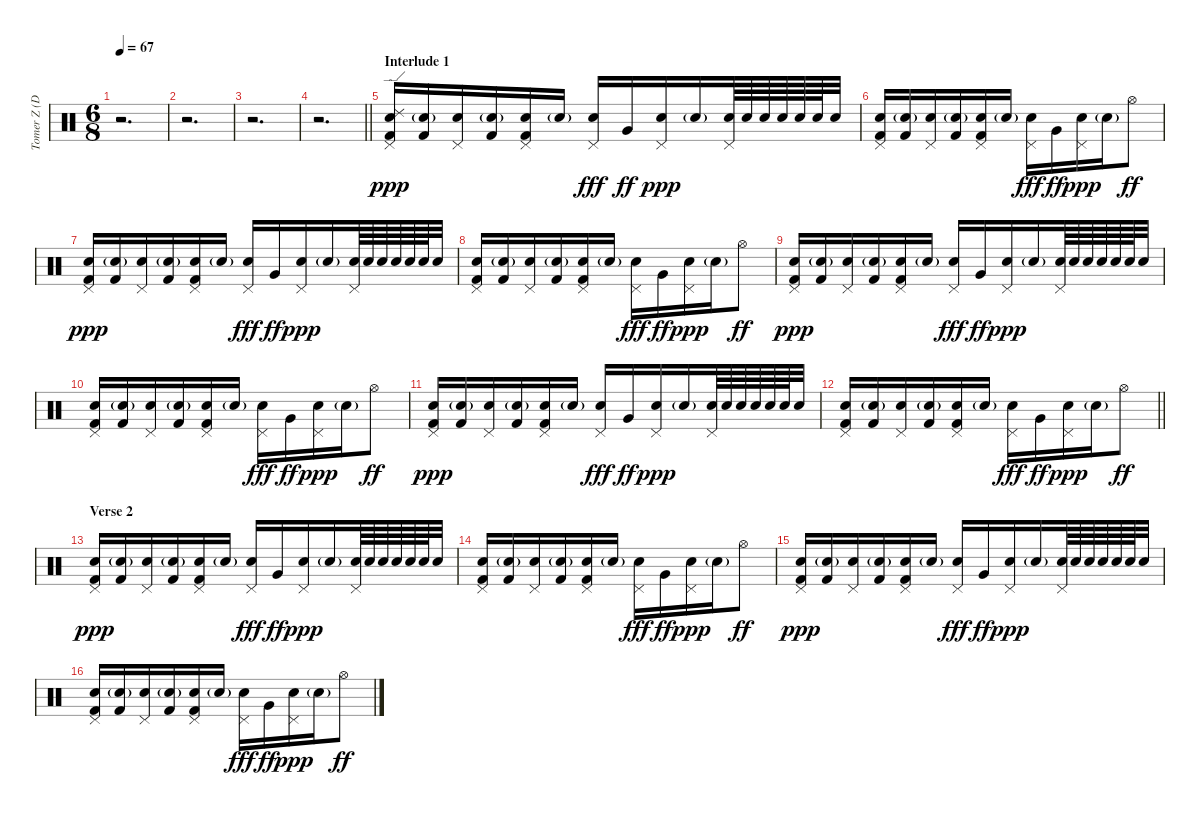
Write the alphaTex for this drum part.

\track ("Tomer Z (Drums)" "Tomer Z (D") {instrument percussion}
\staff {score}
\articulation defaults
\ts (6 8)
\tempo 67
\clef neutral
\ks c
r.2{d dy ppp} |
r.2{d} |
r.2{d} |
\barLineRight lightlight
r.2{d} |
\section ("" "Interlude 1")
("Pedal Hi-Hat (hit)" "Ride (edge) 2" "Snare (hit) 2" "Kick (hit) 2").16 ("Snare (hit) 2"{g} "Kick (hit) 2").16 ("Pedal Hi-Hat (hit)" "Snare (hit) 2").16 ("Snare (hit) 2"{g} "Kick (hit) 2").16 ("Pedal Hi-Hat (hit)" "Snare (hit) 2" "Kick (hit) 2").16 "Snare (hit) 2"{g}.16 ("Pedal Hi-Hat (hit)" "Snare (hit) 2").16{dy fff} "Very Low Tom (hit)".16{dy ff} ("Pedal Hi-Hat (hit)" "Snare (hit) 2").16{dy ppp} "Snare (hit) 2"{g}.16 ("Pedal Hi-Hat (hit)" "Snare (hit) 2").64 "Snare (hit) 2".64 "Snare (hit) 2".64 "Snare (hit) 2".64 "Snare (hit) 2".64 "Snare (hit) 2".64 "Snare (hit) 2".32 |
("Pedal Hi-Hat (hit)" "Snare (hit) 2" "Kick (hit) 2").16 ("Snare (hit) 2"{g} "Kick (hit) 2").16 ("Pedal Hi-Hat (hit)" "Snare (hit) 2").16 ("Snare (hit) 2"{g} "Kick (hit) 2").16 ("Pedal Hi-Hat (hit)" "Snare (hit) 2" "Kick (hit) 2").16 "Snare (hit) 2"{g}.16 ("Pedal Hi-Hat (hit)" "Snare (hit) 2").16{dy fff} "Very Low Tom (hit)".16{dy ff} ("Pedal Hi-Hat (hit)" "Snare (hit) 2").16{dy ppp} "Snare (hit) 2"{g}.16 "Hi-Hat (open)".8{dy ff} |
("Pedal Hi-Hat (hit)" "Snare (hit) 2" "Kick (hit) 2").16{dy ppp} ("Snare (hit) 2"{g} "Kick (hit) 2").16 ("Pedal Hi-Hat (hit)" "Snare (hit) 2").16 ("Snare (hit) 2"{g} "Kick (hit) 2").16 ("Pedal Hi-Hat (hit)" "Snare (hit) 2" "Kick (hit) 2").16 "Snare (hit) 2"{g}.16 ("Pedal Hi-Hat (hit)" "Snare (hit) 2").16{dy fff} "Very Low Tom (hit)".16{dy ff} ("Pedal Hi-Hat (hit)" "Snare (hit) 2").16{dy ppp} "Snare (hit) 2"{g}.16 ("Pedal Hi-Hat (hit)" "Snare (hit) 2").64 "Snare (hit) 2".64 "Snare (hit) 2".64 "Snare (hit) 2".64 "Snare (hit) 2".64 "Snare (hit) 2".64 "Snare (hit) 2".32 |
("Pedal Hi-Hat (hit)" "Snare (hit) 2" "Kick (hit) 2").16 ("Snare (hit) 2"{g} "Kick (hit) 2").16 ("Pedal Hi-Hat (hit)" "Snare (hit) 2").16 ("Snare (hit) 2"{g} "Kick (hit) 2").16 ("Pedal Hi-Hat (hit)" "Snare (hit) 2" "Kick (hit) 2").16 "Snare (hit) 2"{g}.16 ("Pedal Hi-Hat (hit)" "Snare (hit) 2").16{dy fff} "Very Low Tom (hit)".16{dy ff} ("Pedal Hi-Hat (hit)" "Snare (hit) 2").16{dy ppp} "Snare (hit) 2"{g}.16 "Hi-Hat (open)".8{dy ff} |
("Pedal Hi-Hat (hit)" "Snare (hit) 2" "Kick (hit) 2").16{dy ppp} ("Snare (hit) 2"{g} "Kick (hit) 2").16 ("Pedal Hi-Hat (hit)" "Snare (hit) 2").16 ("Snare (hit) 2"{g} "Kick (hit) 2").16 ("Pedal Hi-Hat (hit)" "Snare (hit) 2" "Kick (hit) 2").16 "Snare (hit) 2"{g}.16 ("Pedal Hi-Hat (hit)" "Snare (hit) 2").16{dy fff} "Very Low Tom (hit)".16{dy ff} ("Pedal Hi-Hat (hit)" "Snare (hit) 2").16{dy ppp} "Snare (hit) 2"{g}.16 ("Pedal Hi-Hat (hit)" "Snare (hit) 2").64 "Snare (hit) 2".64 "Snare (hit) 2".64 "Snare (hit) 2".64 "Snare (hit) 2".64 "Snare (hit) 2".64 "Snare (hit) 2".32 |
("Pedal Hi-Hat (hit)" "Snare (hit) 2" "Kick (hit) 2").16 ("Snare (hit) 2"{g} "Kick (hit) 2").16 ("Pedal Hi-Hat (hit)" "Snare (hit) 2").16 ("Snare (hit) 2"{g} "Kick (hit) 2").16 ("Pedal Hi-Hat (hit)" "Snare (hit) 2" "Kick (hit) 2").16 "Snare (hit) 2"{g}.16 ("Pedal Hi-Hat (hit)" "Snare (hit) 2").16{dy fff} "Very Low Tom (hit)".16{dy ff} ("Pedal Hi-Hat (hit)" "Snare (hit) 2").16{dy ppp} "Snare (hit) 2"{g}.16 "Hi-Hat (open)".8{dy ff} |
("Pedal Hi-Hat (hit)" "Snare (hit) 2" "Kick (hit) 2").16{dy ppp} ("Snare (hit) 2"{g} "Kick (hit) 2").16 ("Pedal Hi-Hat (hit)" "Snare (hit) 2").16 ("Snare (hit) 2"{g} "Kick (hit) 2").16 ("Pedal Hi-Hat (hit)" "Snare (hit) 2" "Kick (hit) 2").16 "Snare (hit) 2"{g}.16 ("Pedal Hi-Hat (hit)" "Snare (hit) 2").16{dy fff} "Very Low Tom (hit)".16{dy ff} ("Pedal Hi-Hat (hit)" "Snare (hit) 2").16{dy ppp} "Snare (hit) 2"{g}.16 ("Pedal Hi-Hat (hit)" "Snare (hit) 2").64 "Snare (hit) 2".64 "Snare (hit) 2".64 "Snare (hit) 2".64 "Snare (hit) 2".64 "Snare (hit) 2".64 "Snare (hit) 2".32 |
\barLineRight lightlight
("Pedal Hi-Hat (hit)" "Snare (hit) 2" "Kick (hit) 2").16 ("Snare (hit) 2"{g} "Kick (hit) 2").16 ("Pedal Hi-Hat (hit)" "Snare (hit) 2").16 ("Snare (hit) 2"{g} "Kick (hit) 2").16 ("Pedal Hi-Hat (hit)" "Snare (hit) 2" "Kick (hit) 2").16 "Snare (hit) 2"{g}.16 ("Pedal Hi-Hat (hit)" "Snare (hit) 2").16{dy fff} "Very Low Tom (hit)".16{dy ff} ("Pedal Hi-Hat (hit)" "Snare (hit) 2").16{dy ppp} "Snare (hit) 2"{g}.16 "Hi-Hat (open)".8{dy ff} |
\section ("" "Verse 2")
("Pedal Hi-Hat (hit)" "Snare (hit) 2" "Kick (hit) 2").16{dy ppp} ("Snare (hit) 2"{g} "Kick (hit) 2").16 ("Pedal Hi-Hat (hit)" "Snare (hit) 2").16 ("Snare (hit) 2"{g} "Kick (hit) 2").16 ("Pedal Hi-Hat (hit)" "Snare (hit) 2" "Kick (hit) 2").16 "Snare (hit) 2"{g}.16 ("Pedal Hi-Hat (hit)" "Snare (hit) 2").16{dy fff} "Very Low Tom (hit)".16{dy ff} ("Pedal Hi-Hat (hit)" "Snare (hit) 2").16{dy ppp} "Snare (hit) 2"{g}.16 ("Pedal Hi-Hat (hit)" "Snare (hit) 2").64 "Snare (hit) 2".64 "Snare (hit) 2".64 "Snare (hit) 2".64 "Snare (hit) 2".64 "Snare (hit) 2".64 "Snare (hit) 2".32 |
("Pedal Hi-Hat (hit)" "Snare (hit) 2" "Kick (hit) 2").16 ("Snare (hit) 2"{g} "Kick (hit) 2").16 ("Pedal Hi-Hat (hit)" "Snare (hit) 2").16 ("Snare (hit) 2"{g} "Kick (hit) 2").16 ("Pedal Hi-Hat (hit)" "Snare (hit) 2" "Kick (hit) 2").16 "Snare (hit) 2"{g}.16 ("Pedal Hi-Hat (hit)" "Snare (hit) 2").16{dy fff} "Very Low Tom (hit)".16{dy ff} ("Pedal Hi-Hat (hit)" "Snare (hit) 2").16{dy ppp} "Snare (hit) 2"{g}.16 "Hi-Hat (open)".8{dy ff} |
("Pedal Hi-Hat (hit)" "Snare (hit) 2" "Kick (hit) 2").16{dy ppp} ("Snare (hit) 2"{g} "Kick (hit) 2").16 ("Pedal Hi-Hat (hit)" "Snare (hit) 2").16 ("Snare (hit) 2"{g} "Kick (hit) 2").16 ("Pedal Hi-Hat (hit)" "Snare (hit) 2" "Kick (hit) 2").16 "Snare (hit) 2"{g}.16 ("Pedal Hi-Hat (hit)" "Snare (hit) 2").16{dy fff} "Very Low Tom (hit)".16{dy ff} ("Pedal Hi-Hat (hit)" "Snare (hit) 2").16{dy ppp} "Snare (hit) 2"{g}.16 ("Pedal Hi-Hat (hit)" "Snare (hit) 2").64 "Snare (hit) 2".64 "Snare (hit) 2".64 "Snare (hit) 2".64 "Snare (hit) 2".64 "Snare (hit) 2".64 "Snare (hit) 2".32 |
("Pedal Hi-Hat (hit)" "Snare (hit) 2" "Kick (hit) 2").16 ("Snare (hit) 2"{g} "Kick (hit) 2").16 ("Pedal Hi-Hat (hit)" "Snare (hit) 2").16 ("Snare (hit) 2"{g} "Kick (hit) 2").16 ("Pedal Hi-Hat (hit)" "Snare (hit) 2" "Kick (hit) 2").16 "Snare (hit) 2"{g}.16 ("Pedal Hi-Hat (hit)" "Snare (hit) 2").16{dy fff} "Very Low Tom (hit)".16{dy ff} ("Pedal Hi-Hat (hit)" "Snare (hit) 2").16{dy ppp} "Snare (hit) 2"{g}.16 "Hi-Hat (open)".8{dy ff}
